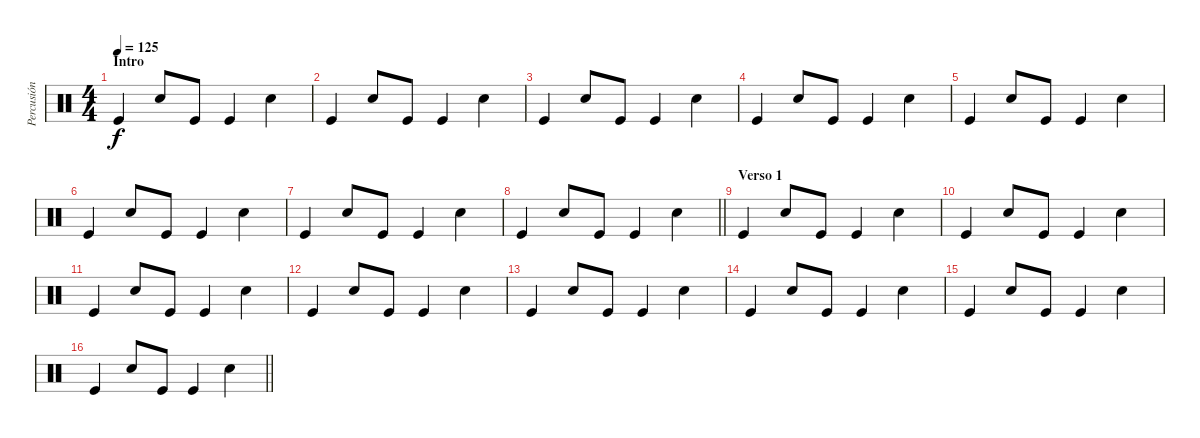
\track ("Percusión" "Percusión") {instrument percussion}
\staff {score}
\articulation defaults
\ts (4 4)
\section ("" "Intro")
\tempo 125
\clef neutral
\ks c "Kick (hit)".4{dy f} "Snare (hit) 2".8 "Kick (hit)".8 "Kick (hit)".4 "Snare (hit) 2".4
|
"Kick (hit)".4 "Snare (hit) 2".8 "Kick (hit)".8 "Kick (hit)".4 "Snare (hit) 2".4 |
"Kick (hit)".4 "Snare (hit) 2".8 "Kick (hit)".8 "Kick (hit)".4 "Snare (hit) 2".4 |
"Kick (hit)".4 "Snare (hit) 2".8 "Kick (hit)".8 "Kick (hit)".4 "Snare (hit) 2".4 |
"Kick (hit)".4 "Snare (hit) 2".8 "Kick (hit)".8 "Kick (hit)".4 "Snare (hit) 2".4 |
"Kick (hit)".4 "Snare (hit) 2".8 "Kick (hit)".8 "Kick (hit)".4 "Snare (hit) 2".4 |
"Kick (hit)".4 "Snare (hit) 2".8 "Kick (hit)".8 "Kick (hit)".4 "Snare (hit) 2".4 |
\barLineRight lightlight "Kick (hit)".4 "Snare (hit) 2".8 "Kick (hit)".8 "Kick (hit)".4 "Snare (hit) 2".4
|
\section ("" "Verso 1")
"Kick (hit)".4 "Snare (hit) 2".8 "Kick (hit)".8 "Kick (hit)".4 "Snare (hit) 2".4 |
"Kick (hit)".4 "Snare (hit) 2".8 "Kick (hit)".8 "Kick (hit)".4 "Snare (hit) 2".4 |
"Kick (hit)".4 "Snare (hit) 2".8 "Kick (hit)".8 "Kick (hit)".4 "Snare (hit) 2".4 |
"Kick (hit)".4 "Snare (hit) 2".8 "Kick (hit)".8 "Kick (hit)".4 "Snare (hit) 2".4 |
"Kick (hit)".4 "Snare (hit) 2".8 "Kick (hit)".8 "Kick (hit)".4 "Snare (hit) 2".4 |
"Kick (hit)".4 "Snare (hit) 2".8 "Kick (hit)".8 "Kick (hit)".4 "Snare (hit) 2".4 |
"Kick (hit)".4 "Snare (hit) 2".8 "Kick (hit)".8 "Kick (hit)".4 "Snare (hit) 2".4 |
\barLineRight lightlight "Kick (hit)".4 "Snare (hit) 2".8 "Kick (hit)".8 "Kick (hit)".4 "Snare (hit) 2".4
